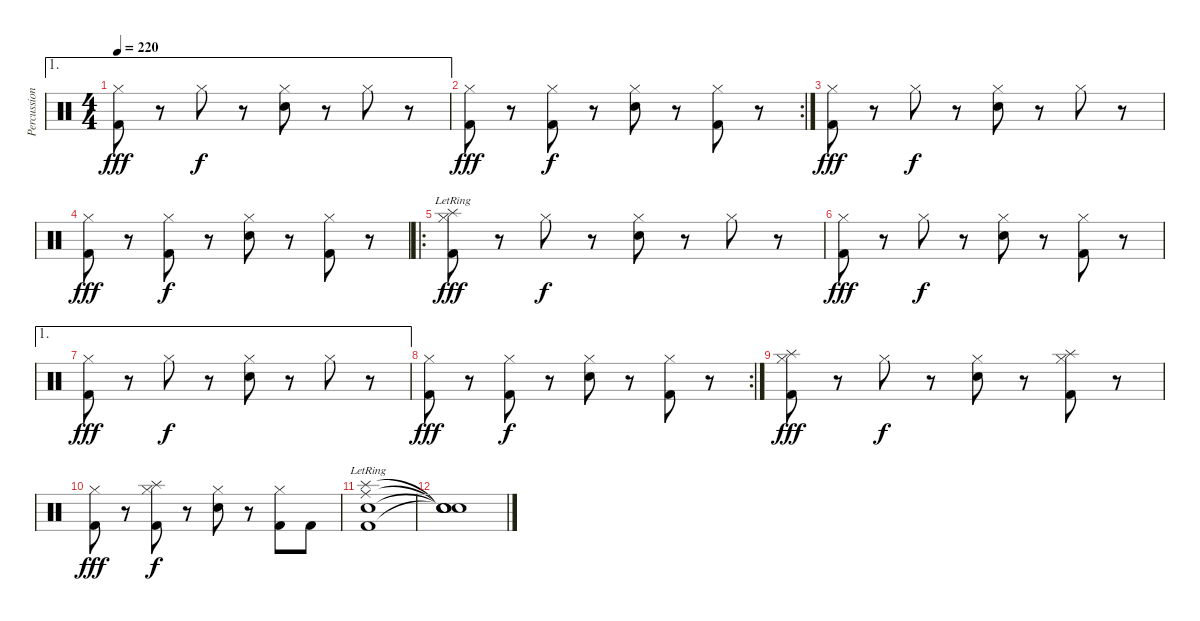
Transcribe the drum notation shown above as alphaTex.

\track ("Percussion" "Percussion") {instrument percussion}
\staff {score}
\articulation defaults
\ae 1
\ts (4 4)
\tempo 220
\clef neutral
\ks c
("Hi-Hat (closed)" "Kick (hit) 2").8{dy fff} r.8 "Hi-Hat (closed)".8{dy f} r.8 ("Hi-Hat (closed)" "Snare (hit) 2").8 r.8 "Hi-Hat (closed)".8 r.8 |
\rc 2
("Hi-Hat (closed)" "Kick (hit) 2").8{dy fff} r.8 ("Hi-Hat (closed)" "Kick (hit) 2").8{dy f} r.8 ("Hi-Hat (closed)" "Snare (hit) 2").8 r.8 ("Hi-Hat (closed)" "Kick (hit) 2").8 r.8 |
("Hi-Hat (closed)" "Kick (hit) 2").8{dy fff} r.8 "Hi-Hat (closed)".8{dy f} r.8 ("Hi-Hat (closed)" "Snare (hit) 2").8 r.8 "Hi-Hat (closed)".8 r.8 |
("Hi-Hat (closed)" "Kick (hit) 2").8{dy fff} r.8 ("Hi-Hat (closed)" "Kick (hit) 2").8{dy f} r.8 ("Hi-Hat (closed)" "Snare (hit) 2").8 r.8 ("Hi-Hat (closed)" "Kick (hit) 2").8 r.8 |
\ro
("Hi-Hat (closed)" "Splash (hit)"{lr} "Kick (hit) 2").8{dy fff} r.8 "Hi-Hat (closed)".8{dy f} r.8 ("Hi-Hat (closed)" "Snare (hit) 2").8 r.8 "Hi-Hat (closed)".8 r.8 |
("Hi-Hat (closed)" "Kick (hit) 2").8{dy fff} r.8 "Hi-Hat (closed)".8{dy f} r.8 ("Hi-Hat (closed)" "Snare (hit) 2").8 r.8 ("Hi-Hat (closed)" "Kick (hit) 2").8 r.8 |
\ae 1
("Hi-Hat (closed)" "Kick (hit) 2").8{dy fff} r.8 "Hi-Hat (closed)".8{dy f} r.8 ("Hi-Hat (closed)" "Snare (hit) 2").8 r.8 "Hi-Hat (closed)".8 r.8 |
\rc 2
("Hi-Hat (closed)" "Kick (hit) 2").8{dy fff} r.8 ("Hi-Hat (closed)" "Kick (hit) 2").8{dy f} r.8 ("Hi-Hat (closed)" "Snare (hit) 2").8 r.8 ("Hi-Hat (closed)" "Kick (hit) 2").8 r.8 |
("Hi-Hat (closed)" "Splash (hit)" "Kick (hit) 2").8{dy fff} r.8 "Hi-Hat (closed)".8{dy f} r.8 ("Hi-Hat (closed)" "Snare (hit) 2").8 r.8 ("Hi-Hat (closed)" "Splash (hit)" "Kick (hit) 2").8 r.8 |
("Hi-Hat (closed)" "Kick (hit) 2").8{dy fff} r.8 ("Hi-Hat (closed)" "Splash (hit)" "Kick (hit) 2").8{dy f} r.8 ("Hi-Hat (closed)" "Snare (hit) 2").8 r.8 ("Hi-Hat (closed)" "Kick (hit) 2").8 "Kick (hit) 2".8 |
("Ride (middle)"{lr} "Splash (hit)"{lr} "Kick (hit) 2" "Snare (hit) 2").1 |
("Snare (hit)"{t} "Snare (hit)"{t} "Snare (hit)"{t} "Snare (hit)"{t}).1
